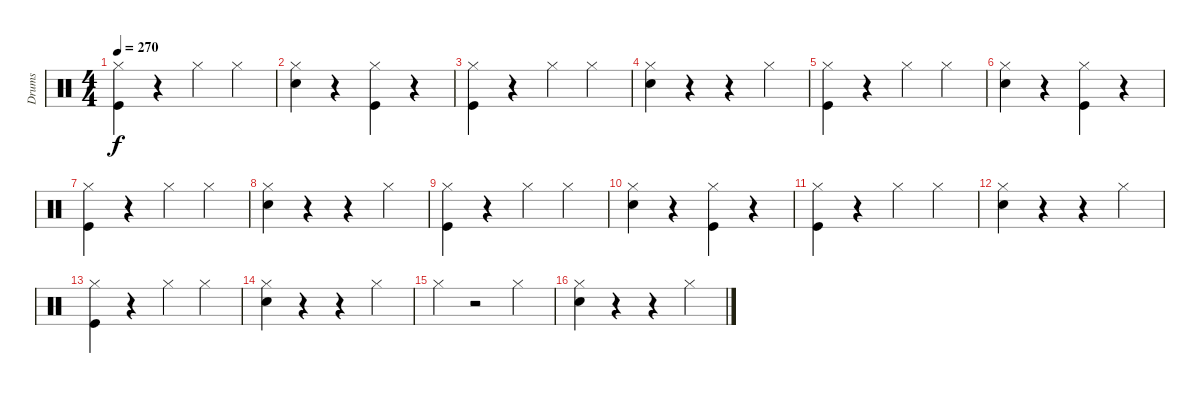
\track ("Drums" "Drums") {instrument percussion}
\staff {score}
\articulation defaults
\ts (4 4)
\tempo 270
\clef neutral
\ks c
("Kick (hit)" "Hi-Hat (closed)").4{dy f} r.4 "Hi-Hat (closed)".4 "Hi-Hat (closed)".4 |
("Snare (hit) 2" "Hi-Hat (closed)").4 r.4 ("Kick (hit)" "Hi-Hat (closed)").4 r.4 |
("Kick (hit)" "Hi-Hat (closed)").4 r.4 "Hi-Hat (closed)".4 "Hi-Hat (closed)".4 |
("Snare (hit) 2" "Hi-Hat (closed)").4 r.4 r.4 "Hi-Hat (closed)".4 |
("Kick (hit)" "Hi-Hat (closed)").4 r.4 "Hi-Hat (closed)".4 "Hi-Hat (closed)".4 |
("Snare (hit) 2" "Hi-Hat (closed)").4 r.4 ("Kick (hit)" "Hi-Hat (closed)").4 r.4 |
("Kick (hit)" "Hi-Hat (closed)").4 r.4 "Hi-Hat (closed)".4 "Hi-Hat (closed)".4 |
("Snare (hit) 2" "Hi-Hat (closed)").4 r.4 r.4 "Hi-Hat (closed)".4 |
("Kick (hit)" "Hi-Hat (closed)").4 r.4 "Hi-Hat (closed)".4 "Hi-Hat (closed)".4 |
("Snare (hit) 2" "Hi-Hat (closed)").4 r.4 ("Kick (hit)" "Hi-Hat (closed)").4 r.4 |
("Kick (hit)" "Hi-Hat (closed)").4 r.4 "Hi-Hat (closed)".4 "Hi-Hat (closed)".4 |
("Snare (hit) 2" "Hi-Hat (closed)").4 r.4 r.4 "Hi-Hat (closed)".4 |
("Kick (hit)" "Hi-Hat (closed)").4 r.4 "Hi-Hat (closed)".4 "Hi-Hat (closed)".4 |
("Snare (hit) 2" "Hi-Hat (closed)").4 r.4 r.4 "Hi-Hat (closed)".4 |
"Hi-Hat (closed)".4 r.2 "Hi-Hat (closed)".4 |
("Snare (hit) 2" "Hi-Hat (closed)").4 r.4 r.4 "Hi-Hat (closed)".4
